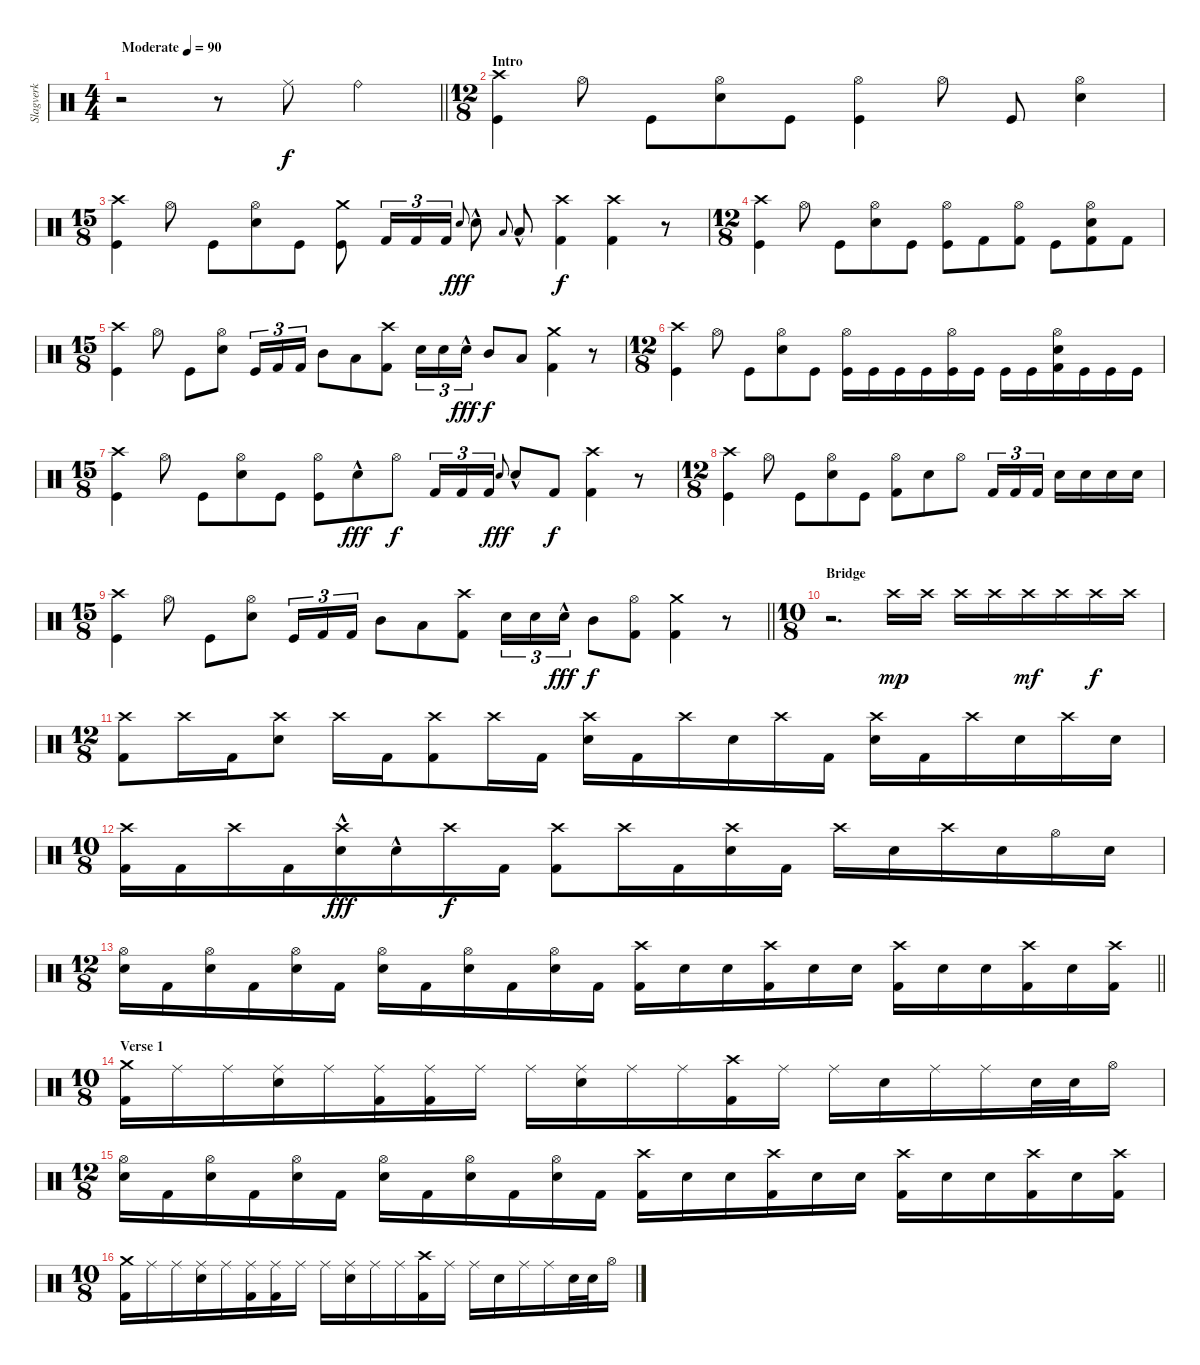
\track ("Slagverk" "Slagverk") {instrument percussion}
\staff {score}
\articulation defaults
\ts (4 4)
\tempo (90 "Moderate")
\clef neutral
\barLineRight lightlight
\ks c
r.2{dy f} r.8 "Ride (middle)".8 "Ride (bell)".4 |
\ts (12 8)
\section ("" "Intro")
("Crash high (hit)" "Kick (hit)").4 "Hi-Hat (open)".8 "Kick (hit)".8 ("Hi-Hat (open)" "Snare (hit) 2").8 "Kick (hit)".8 ("Hi-Hat (open)" "Kick (hit)").4 "Hi-Hat (open)".8 "Kick (hit)".8 ("Hi-Hat (open)" "Snare (hit) 2").4 |
\ts (15 8)
("Crash high (hit)" "Kick (hit)").4 "Hi-Hat (open)".8 "Kick (hit)".8 ("Hi-Hat (open)" "Snare (hit) 2").8 "Kick (hit)".8 ("Crash medium (hit)" "Kick (hit)").8 "Kick (hit) 2".16{tu (3 2)} "Kick (hit) 2".16{tu (3 2)} "Kick (hit) 2".16{tu (3 2)} "Snare (hit) 2".8{gr onbeat dy fff} "Snare (hit) 2"{hac}.8 "Low Tom (hit)".8{gr onbeat} "Low Tom (hit)"{hac}.8 ("Kick (hit) 2" "Crash high (hit)").4{dy f} ("Kick (hit) 2" "Crash high (hit)").4 r.8 |
\ts (12 8)
("Crash high (hit)" "Kick (hit)").4 "Hi-Hat (open)".8 "Kick (hit)".8 ("Hi-Hat (open)" "Snare (hit) 2").8 "Kick (hit)".8 ("Hi-Hat (open)" "Kick (hit)").8 "Kick (hit) 2".8 ("Hi-Hat (open)" "Kick (hit) 2").8 "Kick (hit)".8 ("Hi-Hat (open)" "Snare (hit) 2" "Kick (hit) 2").8 "Kick (hit) 2".8 |
\ts (15 8)
("Crash high (hit)" "Kick (hit)").4 "Hi-Hat (open)".8 "Kick (hit)".8 ("Hi-Hat (open)" "Snare (hit) 2").8 "Kick (hit)".16{tu (3 2)} "Kick (hit) 2".16{tu (3 2)} "Kick (hit) 2".16{tu (3 2)} "Mid Tom (hit)".8 "Low Tom (hit)".8 ("Kick (hit) 2" "Crash high (hit)").8 "Snare (hit) 2".16{tu (3 2)} "Snare (hit) 2".16{tu (3 2)} "Snare (hit) 2"{hac}.16{tu (3 2) dy fff} "Mid Tom (hit)".8{dy f} "Low Tom (hit)".8 ("Kick (hit) 2" "Crash medium (hit)").4 r.8 |
\ts (12 8)
("Crash high (hit)" "Kick (hit)").4 "Hi-Hat (open)".8 "Kick (hit)".8 ("Hi-Hat (open)" "Snare (hit) 2").8 "Kick (hit)".8 ("Hi-Hat (open)" "Kick (hit)").16 "Kick (hit)".16 "Kick (hit)".16 "Kick (hit)".16 ("Kick (hit)" "Hi-Hat (open)").16 "Kick (hit)".16 "Kick (hit)".16 "Kick (hit)".16 ("Hi-Hat (open)" "Snare (hit) 2" "Kick (hit) 2").16 "Kick (hit)".16 "Kick (hit)".16 "Kick (hit)".16 |
\ts (15 8)
("Crash high (hit)" "Kick (hit)").4 "Hi-Hat (open)".8 "Kick (hit)".8 ("Hi-Hat (open)" "Snare (hit) 2").8 "Kick (hit)".8 ("Hi-Hat (open)" "Kick (hit)").8 "Snare (hit) 2"{hac}.8{dy fff} "Hi-Hat (open)".8{dy f} "Kick (hit) 2".16{tu (3 2)} "Kick (hit) 2".16{tu (3 2)} "Kick (hit) 2".16{tu (3 2)} "Snare (hit) 2".8{gr onbeat dy fff} "Snare (hit) 2"{hac}.8 "Kick (hit) 2".8{dy f} ("Crash high (hit)" "Kick (hit) 2").4 r.8 |
\ts (12 8)
("Crash high (hit)" "Kick (hit)").4 "Hi-Hat (open)".8 "Kick (hit)".8 ("Hi-Hat (open)" "Snare (hit) 2").8 "Kick (hit)".8 ("Kick (hit) 2" "Hi-Hat (open)").8 "Snare (hit) 2".8 "Hi-Hat (open)".8 "Kick (hit) 2".16{tu (3 2)} "Kick (hit) 2".16{tu (3 2)} "Kick (hit) 2".16{tu (3 2) beam splitsecondary} "Snare (hit) 2".16 "Snare (hit) 2".16 "Snare (hit) 2".16 "Snare (hit) 2".16 |
\ts (15 8)
\barLineRight lightlight
("Crash high (hit)" "Kick (hit)").4 "Hi-Hat (open)".8 "Kick (hit)".8 ("Hi-Hat (open)" "Snare (hit) 2").8 "Kick (hit)".16{tu (3 2)} "Kick (hit) 2".16{tu (3 2)} "Kick (hit) 2".16{tu (3 2)} "Mid Tom (hit)".8 "Low Tom (hit)".8 ("Kick (hit) 2" "Crash high (hit)").8 "Snare (hit) 2".16{tu (3 2)} "Snare (hit) 2".16{tu (3 2)} "Snare (hit) 2"{hac}.16{tu (3 2) dy fff} "Mid Tom (hit)".8{dy f} ("Hi-Hat (open)" "Kick (hit) 2").8 ("Kick (hit) 2" "Crash medium (hit)").4 r.8 |
\ts (10 8)
\section ("" "Bridge")
r.2{d} "Crash high (hit)".16{dy mp} "Crash high (hit)".16 "Crash high (hit)".16 "Crash high (hit)".16 "Crash high (hit)".16{dy mf} "Crash high (hit)".16 "Crash high (hit)".16{dy f} "Crash high (hit)".16 |
\ts (12 8)
("Crash high (hit)" "Kick (hit) 2").8 "Crash high (hit)".16 "Kick (hit) 2".16 ("Crash high (hit)" "Snare (hit) 2").8 "Crash high (hit)".16 "Kick (hit) 2".16 ("Kick (hit) 2" "Crash high (hit)").8 "Crash high (hit)".16 "Kick (hit) 2".16 ("Crash high (hit)" "Snare (hit) 2").16 "Kick (hit) 2".16 "Crash high (hit)".16 "Snare (hit) 2".16 "Crash high (hit)".16 "Kick (hit) 2".16 ("Crash high (hit)" "Snare (hit) 2").16 "Kick (hit) 2".16 "Crash high (hit)".16 "Snare (hit) 2".16 "Crash high (hit)".16 "Snare (hit) 2".16 |
\ts (10 8)
("Crash high (hit)" "Kick (hit) 2").16 "Kick (hit) 2".16 "Crash high (hit)".16 "Kick (hit) 2".16 ("Crash high (hit)" "Snare (hit) 2"{hac}).16{dy fff} "Snare (hit) 2"{hac}.16 "Crash high (hit)".16{dy f} "Kick (hit) 2".16 ("Kick (hit) 2" "Crash high (hit)").8 "Crash high (hit)".16 "Kick (hit) 2".16 ("Snare (hit) 2" "Crash high (hit)").16 "Kick (hit) 2".16 "Crash high (hit)".16 "Snare (hit) 2".16 "Crash high (hit)".16 "Snare (hit) 2".16 "Hi-Hat (open)".16 "Snare (hit) 2".16 |
\ts (12 8)
\barLineRight lightlight
("Snare (hit) 2" "Hi-Hat (open)").16 "Kick (hit) 2".16 ("Hi-Hat (open)" "Snare (hit) 2").16 "Kick (hit) 2".16 ("Hi-Hat (open)" "Snare (hit) 2").16 "Kick (hit) 2".16 ("Hi-Hat (open)" "Snare (hit) 2").16 "Kick (hit) 2".16 ("Hi-Hat (open)" "Snare (hit) 2").16 "Kick (hit) 2".16 ("Hi-Hat (open)" "Snare (hit) 2").16 "Kick (hit) 2".16 ("Crash high (hit)" "Kick (hit) 2").16 "Snare (hit) 2".16 "Snare (hit) 2".16 ("Crash high (hit)" "Kick (hit) 2").16 "Snare (hit) 2".16 "Snare (hit) 2".16 ("Crash high (hit)" "Kick (hit) 2").16 "Snare (hit) 2".16 "Snare (hit) 2".16 ("Kick (hit) 2" "Crash high (hit)").16 "Snare (hit) 2".16 ("Crash high (hit)" "Kick (hit) 2").16 |
\ts (10 8)
\section ("" "Verse 1")
("Kick (hit) 2" "Crash medium (hit)").16 "Ride (middle)".16 "Ride (middle)".16 ("Ride (middle)" "Snare (hit) 2").16 "Ride (middle)".16 ("Ride (middle)" "Kick (hit) 2").16 ("Kick (hit) 2" "Ride (middle)").16 "Ride (middle)".16 "Ride (middle)".16 ("Ride (middle)" "Snare (hit) 2").16 "Ride (middle)".16 "Ride (middle)".16 ("Crash high (hit)" "Kick (hit) 2").16 "Ride (middle)".16 "Ride (middle)".16 "Snare (hit) 2".16 "Ride (middle)".16 "Ride (middle)".16 "Snare (hit) 2".32 "Snare (hit) 2".32 "Hi-Hat (open)".16 |
\ts (12 8)
("Hi-Hat (open)" "Snare (hit) 2").16 "Kick (hit) 2".16 ("Snare (hit) 2" "Hi-Hat (open)").16 "Kick (hit) 2".16 ("Snare (hit) 2" "Hi-Hat (open)").16 "Kick (hit) 2".16 ("Snare (hit) 2" "Hi-Hat (open)").16 "Kick (hit) 2".16 ("Snare (hit) 2" "Hi-Hat (open)").16 "Kick (hit) 2".16 ("Snare (hit) 2" "Hi-Hat (open)").16 "Kick (hit) 2".16 ("Crash high (hit)" "Kick (hit) 2").16 "Snare (hit) 2".16 "Snare (hit) 2".16 ("Crash high (hit)" "Kick (hit) 2").16 "Snare (hit) 2".16 "Snare (hit) 2".16 ("Crash high (hit)" "Kick (hit) 2").16 "Snare (hit) 2".16 "Snare (hit) 2".16 ("Kick (hit) 2" "Crash high (hit)").16 "Snare (hit) 2".16 ("Crash high (hit)" "Kick (hit) 2").16 |
\ts (10 8)
("Kick (hit) 2" "Crash medium (hit)").16 "Ride (middle)".16 "Ride (middle)".16 ("Ride (middle)" "Snare (hit) 2").16 "Ride (middle)".16 ("Ride (middle)" "Kick (hit) 2").16 ("Kick (hit) 2" "Ride (middle)").16 "Ride (middle)".16 "Ride (middle)".16 ("Ride (middle)" "Snare (hit) 2").16 "Ride (middle)".16 "Ride (middle)".16 ("Crash high (hit)" "Kick (hit) 2").16 "Ride (middle)".16 "Ride (middle)".16 "Snare (hit) 2".16 "Ride (middle)".16 "Ride (middle)".16 "Snare (hit) 2".32 "Snare (hit) 2".32 "Hi-Hat (open)".16
